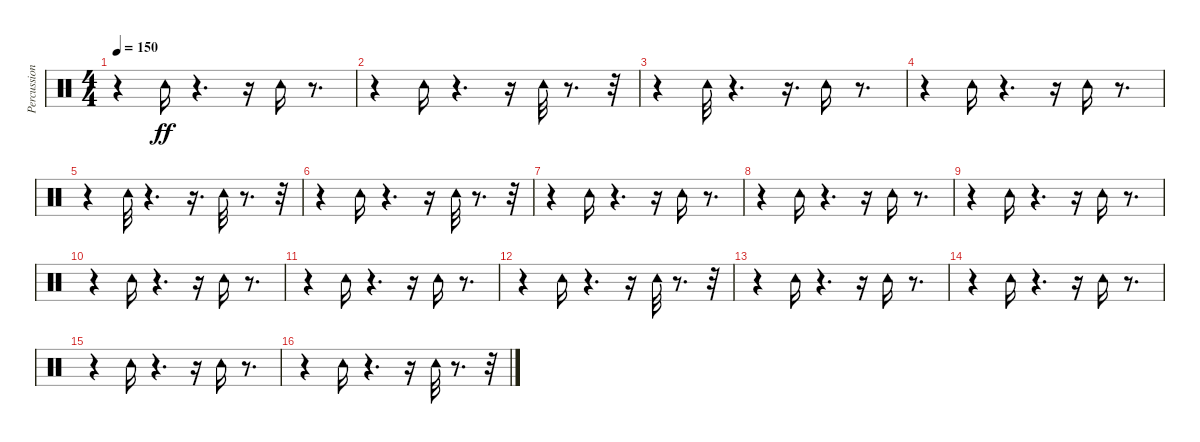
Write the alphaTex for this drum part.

\track ("Percussion" "Percussion") {instrument percussion}
\staff {score}
\articulation defaults
\ts (4 4)
\tempo 150
\clef neutral
\ks c
r.4{dy ff} "Tambourine (hit)".16 r.4{d} r.16 "Tambourine (hit)".16 r.8{d} |
r.4 "Tambourine (hit)".16 r.4{d} r.16 "Tambourine (hit)".32 r.8{d} r.32 |
r.4 "Tambourine (hit)".32 r.4{d} r.16{d} "Tambourine (hit)".16 r.8{d} |
r.4 "Tambourine (hit)".16 r.4{d} r.16 "Tambourine (hit)".16 r.8{d} |
r.4 "Tambourine (hit)".32 r.4{d} r.16{d} "Tambourine (hit)".32 r.8{d} r.32 |
r.4 "Tambourine (hit)".16 r.4{d} r.16 "Tambourine (hit)".32 r.8{d} r.32 |
r.4 "Tambourine (hit)".16 r.4{d} r.16 "Tambourine (hit)".16 r.8{d} |
r.4 "Tambourine (hit)".16 r.4{d} r.16 "Tambourine (hit)".16 r.8{d} |
r.4 "Tambourine (hit)".16 r.4{d} r.16 "Tambourine (hit)".16 r.8{d} |
r.4 "Tambourine (hit)".16 r.4{d} r.16 "Tambourine (hit)".16 r.8{d} |
r.4 "Tambourine (hit)".16 r.4{d} r.16 "Tambourine (hit)".16 r.8{d} |
r.4 "Tambourine (hit)".16 r.4{d} r.16 "Tambourine (hit)".32 r.8{d} r.32 |
r.4 "Tambourine (hit)".16 r.4{d} r.16 "Tambourine (hit)".16 r.8{d} |
r.4 "Tambourine (hit)".16 r.4{d} r.16 "Tambourine (hit)".16 r.8{d} |
r.4 "Tambourine (hit)".16 r.4{d} r.16 "Tambourine (hit)".16 r.8{d} |
r.4 "Tambourine (hit)".16 r.4{d} r.16 "Tambourine (hit)".32 r.8{d} r.32
